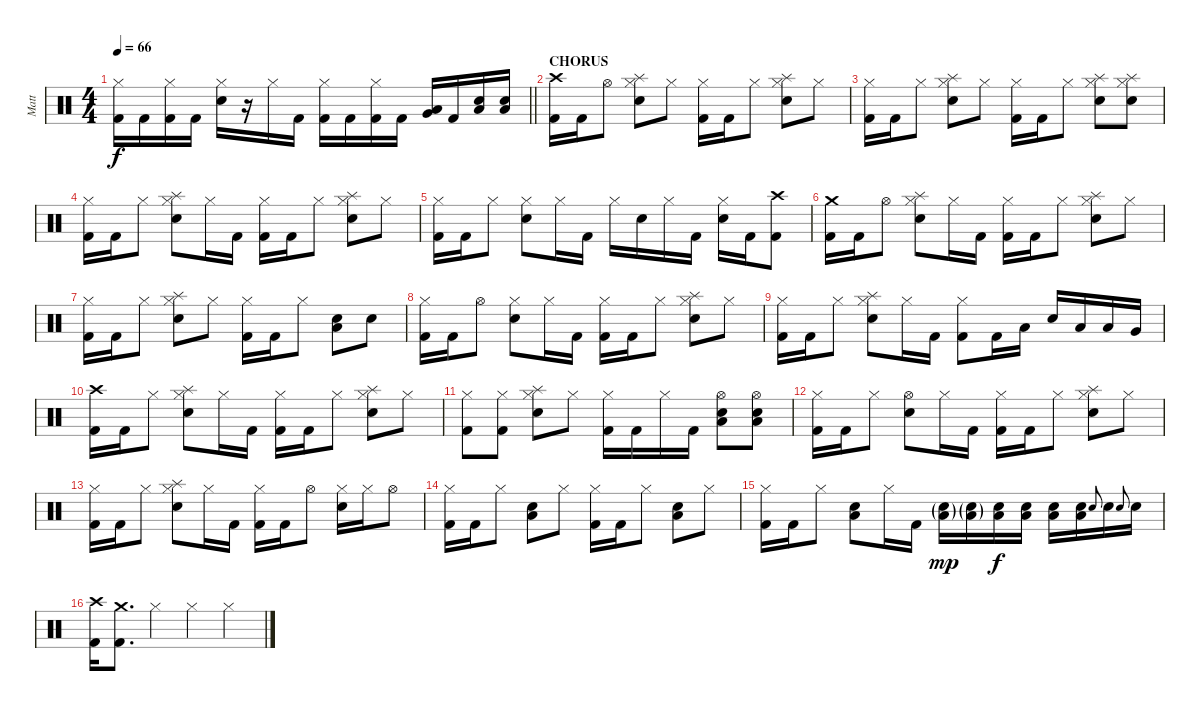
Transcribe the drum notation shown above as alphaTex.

\track ("Matt" "Matt") {instrument percussion}
\staff {score}
\articulation defaults
\ts (4 4)
\tempo 66
\clef neutral
\barLineRight lightlight
\ks c
("Kick (hit) 2" "Hi-Hat (closed)").16{dy f} "Kick (hit) 2".16 ("Kick (hit) 2" "Hi-Hat (closed)").16 "Kick (hit) 2".16 ("Electric Snare (hit)" "Hi-Hat (closed)").16 r.16 "Hi-Hat (closed)".16 "Kick (hit) 2".16 ("Kick (hit) 2" "Hi-Hat (closed)").16 "Kick (hit) 2".16 ("Kick (hit) 2" "Hi-Hat (closed)").16 "Kick (hit) 2".16 ("Very Low Tom (hit)" "Low Floor Tom (hit)").16 "Kick (hit) 2".16 ("Electric Snare (hit)" "Low Floor Tom (hit)").16 ("Electric Snare (hit)" "Low Floor Tom (hit)").16 |
\section ("" "CHORUS")
("Crash high (hit)" "Kick (hit) 2").16 "Kick (hit) 2".16 "Hi-Hat (open)".8 ("Electric Snare (hit)" "Splash (hit)" "Hi-Hat (closed)").8 "Hi-Hat (closed)".8 ("Kick (hit) 2" "Hi-Hat (closed)").16 "Kick (hit) 2".16 "Hi-Hat (closed)".8 ("Electric Snare (hit)" "Splash (hit)" "Hi-Hat (closed)").8 "Hi-Hat (closed)".8 |
("Kick (hit) 2" "Hi-Hat (closed)").16 "Kick (hit) 2".16 "Hi-Hat (closed)".8 ("Electric Snare (hit)" "Splash (hit)" "Hi-Hat (closed)").8 "Hi-Hat (closed)".8 ("Kick (hit) 2" "Hi-Hat (closed)").16 "Kick (hit) 2".16 "Hi-Hat (closed)".8 ("Electric Snare (hit)" "Splash (hit)" "Hi-Hat (closed)").8 ("Electric Snare (hit)" "Splash (hit)" "Hi-Hat (closed)").8 |
("Kick (hit) 2" "Hi-Hat (closed)").16 "Kick (hit) 2".16 "Hi-Hat (closed)".8 ("Electric Snare (hit)" "Splash (hit)" "Hi-Hat (closed)").8 "Hi-Hat (closed)".16 "Kick (hit) 2".16 ("Kick (hit) 2" "Hi-Hat (closed)").16 "Kick (hit) 2".16 "Hi-Hat (closed)".8 ("Electric Snare (hit)" "Splash (hit)" "Hi-Hat (closed)").8 "Hi-Hat (closed)".8 |
("Kick (hit) 2" "Hi-Hat (closed)").16 "Kick (hit) 2".16 "Hi-Hat (closed)".8 ("Electric Snare (hit)" "Hi-Hat (closed)").8 "Hi-Hat (closed)".16 "Kick (hit) 2".16 "Hi-Hat (closed)".16 "Electric Snare (hit)".16 "Hi-Hat (closed)".16 "Kick (hit) 2".16 ("Electric Snare (hit)" "Hi-Hat (closed)").16 "Kick (hit) 2".16 ("Crash high (hit)" "Kick (hit) 2").8 |
("Crash medium (hit)" "Kick (hit) 2").16 "Kick (hit) 2".16 "Hi-Hat (open)".8 ("Electric Snare (hit)" "Splash (hit)" "Hi-Hat (closed)").8 "Hi-Hat (closed)".16 "Kick (hit) 2".16 ("Kick (hit) 2" "Hi-Hat (closed)").16 "Kick (hit) 2".16 "Hi-Hat (closed)".8 ("Electric Snare (hit)" "Splash (hit)" "Hi-Hat (closed)").8 "Hi-Hat (closed)".8 |
("Kick (hit) 2" "Hi-Hat (closed)").16 "Kick (hit) 2".16 "Hi-Hat (closed)".8 ("Electric Snare (hit)" "Splash (hit)" "Hi-Hat (closed)").8 "Hi-Hat (closed)".8 ("Kick (hit) 2" "Hi-Hat (closed)").16 "Kick (hit) 2".16 "Hi-Hat (closed)".8 ("Electric Snare (hit)" "Low Floor Tom (hit)").8 "Electric Snare (hit)".8 |
("Kick (hit) 2" "Hi-Hat (closed)").16 "Kick (hit) 2".16 "Hi-Hat (open)".8 ("Electric Snare (hit)" "Hi-Hat (closed)").8 "Hi-Hat (closed)".16 "Kick (hit) 2".16 ("Kick (hit) 2" "Hi-Hat (closed)").16 "Kick (hit) 2".16 "Hi-Hat (closed)".8 ("Electric Snare (hit)" "Splash (hit)" "Hi-Hat (closed)").8 "Hi-Hat (closed)".8 |
("Kick (hit) 2" "Hi-Hat (closed)").16 "Kick (hit) 2".16 "Hi-Hat (closed)".8 ("Electric Snare (hit)" "Splash (hit)" "Hi-Hat (closed)").8 "Hi-Hat (closed)".16 "Kick (hit) 2".16 ("Kick (hit) 2" "Hi-Hat (closed)").8 "Kick (hit) 2".16 "Low Tom (hit)".16 "Electric Snare (hit)".16 "Low Tom (hit)".16 "Low Tom (hit)".16 "Very Low Tom (hit)".16 |
("Crash high (hit)" "Kick (hit) 2").16 "Kick (hit) 2".16 "Hi-Hat (closed)".8 ("Electric Snare (hit)" "Splash (hit)" "Hi-Hat (closed)").8 "Hi-Hat (closed)".16 "Kick (hit) 2".16 ("Kick (hit) 2" "Hi-Hat (closed)").16 "Kick (hit) 2".16 "Hi-Hat (closed)".8 ("Electric Snare (hit)" "Splash (hit)" "Hi-Hat (closed)").8 "Hi-Hat (closed)".8 |
("Kick (hit) 2" "Hi-Hat (closed)").8 ("Kick (hit) 2" "Hi-Hat (closed)").8 ("Electric Snare (hit)" "Splash (hit)" "Hi-Hat (closed)").8 "Hi-Hat (closed)".8 ("Kick (hit) 2" "Hi-Hat (closed)").16 "Kick (hit) 2".16 "Hi-Hat (closed)".16 "Kick (hit) 2".16 ("Hi-Hat (open)" "Electric Snare (hit)" "Low Floor Tom (hit)").8 ("Hi-Hat (open)" "Electric Snare (hit)" "Low Floor Tom (hit)").8 |
("Kick (hit) 2" "Hi-Hat (closed)").16 "Kick (hit) 2".16 "Hi-Hat (closed)".8 ("Electric Snare (hit)" "Hi-Hat (open)").8 "Hi-Hat (closed)".16 "Kick (hit) 2".16 ("Kick (hit) 2" "Hi-Hat (closed)").16 "Kick (hit) 2".16 "Hi-Hat (closed)".8 ("Electric Snare (hit)" "Splash (hit)" "Hi-Hat (closed)").8 "Hi-Hat (closed)".8 |
("Kick (hit) 2" "Hi-Hat (closed)").16 "Kick (hit) 2".16 "Hi-Hat (closed)".8 ("Electric Snare (hit)" "Splash (hit)" "Hi-Hat (closed)").8 "Hi-Hat (closed)".16 "Kick (hit) 2".16 ("Kick (hit) 2" "Hi-Hat (closed)").16 "Kick (hit) 2".16 "Hi-Hat (open)".8 ("Electric Snare (hit)" "Hi-Hat (closed)").16 "Hi-Hat (closed)".16 "Hi-Hat (open)".8 |
("Kick (hit) 2" "Hi-Hat (closed)").16 "Kick (hit) 2".16 "Hi-Hat (closed)".8 ("Electric Snare (hit)" "Low Floor Tom (hit)").8 "Hi-Hat (closed)".8 ("Kick (hit) 2" "Hi-Hat (closed)").16 "Kick (hit) 2".16 "Hi-Hat (closed)".8 ("Electric Snare (hit)" "Low Floor Tom (hit)").8 "Hi-Hat (closed)".8 |
("Kick (hit) 2" "Hi-Hat (closed)").16 "Kick (hit) 2".16 "Hi-Hat (closed)".8 ("Electric Snare (hit)" "Low Floor Tom (hit)").8 "Hi-Hat (closed)".16 "Kick (hit) 2".16 ("Electric Snare (hit)"{g} "Low Floor Tom (hit)"{g}).16{dy mp} ("Electric Snare (hit)"{g} "Low Floor Tom (hit)"{g}).16 ("Electric Snare (hit)" "Low Floor Tom (hit)").16{dy f} ("Electric Snare (hit)" "Low Floor Tom (hit)").16 ("Electric Snare (hit)" "Low Floor Tom (hit)").16 ("Electric Snare (hit)" "Low Floor Tom (hit)").16 "Snare (hit) 2".8{gr onbeat} "Electric Snare (hit)".16 "Snare (hit) 2".8{gr onbeat} "Electric Snare (hit)".16 |
("Crash high (hit)" "Kick (hit) 2").16 ("Kick (hit) 2" "Crash medium (hit)").8{d} "Hi-Hat (closed)".4 "Hi-Hat (closed)".4 "Hi-Hat (closed)".4
